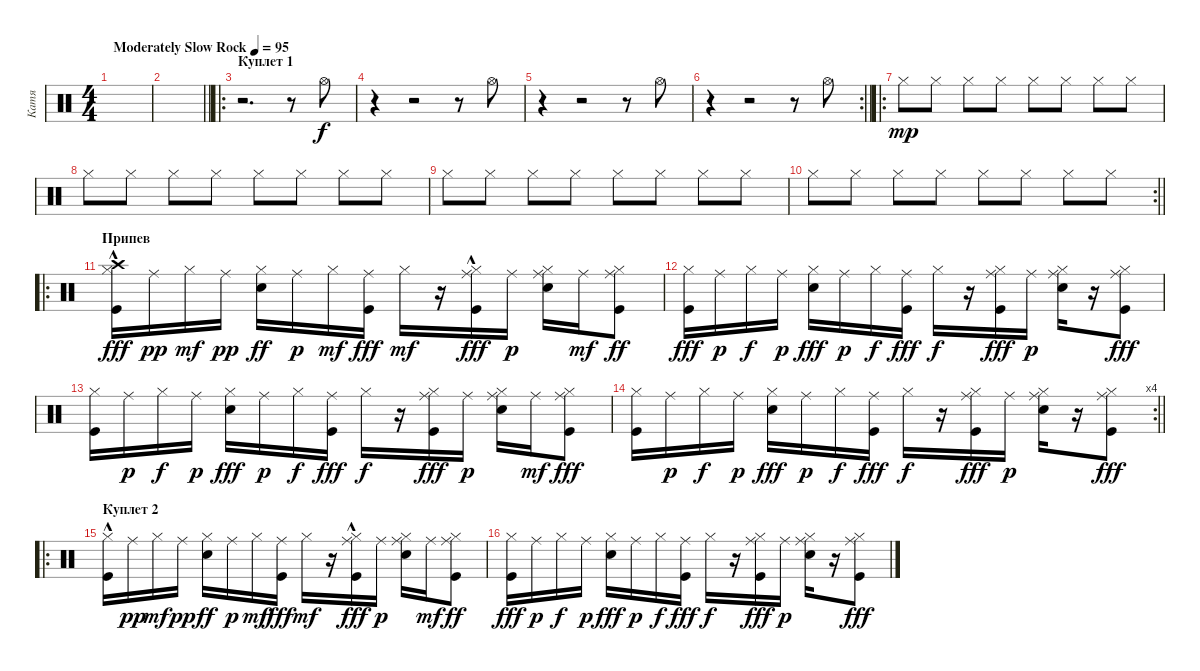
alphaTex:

\track ("Катя" "Катя") {instrument percussion}
\staff {score}
\articulation defaults
\ts (4 4)
\tempo (95 "Moderately Slow Rock")
\clef neutral
\ks c
|
\barLineRight lightlight
|
\ro
\section ("" "Куплет 1")
r.2{d} r.8 "Hi-Hat (open)".8 |
r.4 r.2 r.8 "Hi-Hat (open)".8 |
r.4 r.2 r.8 "Hi-Hat (open)".8 |
\rc 2
\barLineRight lightlight
r.4 r.2 r.8 "Hi-Hat (open)".8 |
\ro "Hi-Hat (closed)".8{dy mp} "Hi-Hat (closed)".8 "Hi-Hat (closed)".8 "Hi-Hat (closed)".8 "Hi-Hat (closed)".8 "Hi-Hat (closed)".8 "Hi-Hat (closed)".8 "Hi-Hat (closed)".8
|
"Hi-Hat (closed)".8 "Hi-Hat (closed)".8 "Hi-Hat (closed)".8 "Hi-Hat (closed)".8 "Hi-Hat (closed)".8 "Hi-Hat (closed)".8 "Hi-Hat (closed)".8 "Hi-Hat (closed)".8 |
"Hi-Hat (closed)".8 "Hi-Hat (closed)".8 "Hi-Hat (closed)".8 "Hi-Hat (closed)".8 "Hi-Hat (closed)".8 "Hi-Hat (closed)".8 "Hi-Hat (closed)".8 "Hi-Hat (closed)".8 |
\rc 2
\barLineRight lightlight "Hi-Hat (closed)".8 "Hi-Hat (closed)".8 "Hi-Hat (closed)".8 "Hi-Hat (closed)".8 "Hi-Hat (closed)".8 "Hi-Hat (closed)".8 "Hi-Hat (closed)".8 "Hi-Hat (closed)".8
|
\ro
\section ("" "Припев")
("Hi-Hat (closed)" "Crash high (hit)" "Kick (hit)"{hac}).16{dy fff} "Ride (middle)".16{dy pp} "Hi-Hat (closed)".16{dy mf} "Ride (middle)".16{dy pp} ("Hi-Hat (closed)" "Snare (hit) 2").16{dy ff} "Ride (middle)".16{dy p} "Hi-Hat (closed)".16{dy mf} ("Ride (middle)" "Kick (hit)").16{dy fff} "Hi-Hat (closed)".16{dy mf} r.16 ("Hi-Hat (closed)" "Ride (middle)" "Kick (hit)"{hac}).16{dy fff} "Ride (middle)".16{dy p} ("Hi-Hat (closed)" "Snare (hit) 2" "Ride (middle)").16 "Ride (middle)".16{dy mf} ("Hi-Hat (closed)" "Ride (middle)" "Kick (hit)").8{dy ff} |
("Hi-Hat (closed)" "Kick (hit)").16{dy fff} "Ride (middle)".16{dy p} "Hi-Hat (closed)".16{dy f} "Ride (middle)".16{dy p} ("Hi-Hat (closed)" "Snare (hit) 2").16{dy fff} "Ride (middle)".16{dy p} "Hi-Hat (closed)".16{dy f} ("Ride (middle)" "Kick (hit)").16{dy fff} "Hi-Hat (closed)".16{dy f} r.16 ("Hi-Hat (closed)" "Ride (middle)" "Kick (hit)").16{dy fff} "Ride (middle)".16{dy p} ("Hi-Hat (closed)" "Snare (hit) 2" "Ride (middle)").16 r.16 ("Hi-Hat (closed)" "Ride (middle)" "Kick (hit)").8{dy fff} |
("Hi-Hat (closed)" "Kick (hit)").16 "Ride (middle)".16{dy p} "Hi-Hat (closed)".16{dy f} "Ride (middle)".16{dy p} ("Hi-Hat (closed)" "Snare (hit) 2").16{dy fff} "Ride (middle)".16{dy p} "Hi-Hat (closed)".16{dy f} ("Ride (middle)" "Kick (hit)").16{dy fff} "Hi-Hat (closed)".16{dy f} r.16 ("Hi-Hat (closed)" "Ride (middle)" "Kick (hit)").16{dy fff} "Ride (middle)".16{dy p} ("Hi-Hat (closed)" "Snare (hit) 2" "Ride (middle)").16 "Ride (middle)".16{dy mf} ("Hi-Hat (closed)" "Ride (middle)" "Kick (hit)").8{dy fff} |
\rc 4
\barLineRight lightlight
("Hi-Hat (closed)" "Kick (hit)").16 "Ride (middle)".16{dy p} "Hi-Hat (closed)".16{dy f} "Ride (middle)".16{dy p} ("Hi-Hat (closed)" "Snare (hit) 2").16{dy fff} "Ride (middle)".16{dy p} "Hi-Hat (closed)".16{dy f} ("Ride (middle)" "Kick (hit)").16{dy fff} "Hi-Hat (closed)".16{dy f} r.16 ("Hi-Hat (closed)" "Ride (middle)" "Kick (hit)").16{dy fff} "Ride (middle)".16{dy p} ("Hi-Hat (closed)" "Snare (hit) 2" "Ride (middle)").16 r.16 ("Hi-Hat (closed)" "Ride (middle)" "Kick (hit)").8{dy fff} |
\ro
\section ("" "Куплет 2")
("Hi-Hat (closed)" "Kick (hit)"{hac}).16 "Ride (middle)".16{dy pp} "Hi-Hat (closed)".16{dy mf} "Ride (middle)".16{dy pp} ("Hi-Hat (closed)" "Snare (hit) 2").16{dy ff} "Ride (middle)".16{dy p} "Hi-Hat (closed)".16{dy mf} ("Ride (middle)" "Kick (hit)").16{dy fff} "Hi-Hat (closed)".16{dy mf} r.16 ("Hi-Hat (closed)" "Ride (middle)" "Kick (hit)"{hac}).16{dy fff} "Ride (middle)".16{dy p} ("Hi-Hat (closed)" "Snare (hit) 2" "Ride (middle)").16 "Ride (middle)".16{dy mf} ("Hi-Hat (closed)" "Ride (middle)" "Kick (hit)").8{dy ff} |
("Hi-Hat (closed)" "Kick (hit)").16{dy fff} "Ride (middle)".16{dy p} "Hi-Hat (closed)".16{dy f} "Ride (middle)".16{dy p} ("Hi-Hat (closed)" "Snare (hit) 2").16{dy fff} "Ride (middle)".16{dy p} "Hi-Hat (closed)".16{dy f} ("Ride (middle)" "Kick (hit)").16{dy fff} "Hi-Hat (closed)".16{dy f} r.16 ("Hi-Hat (closed)" "Ride (middle)" "Kick (hit)").16{dy fff} "Ride (middle)".16{dy p} ("Hi-Hat (closed)" "Snare (hit) 2" "Ride (middle)").16 r.16 ("Hi-Hat (closed)" "Ride (middle)" "Kick (hit)").8{dy fff}
